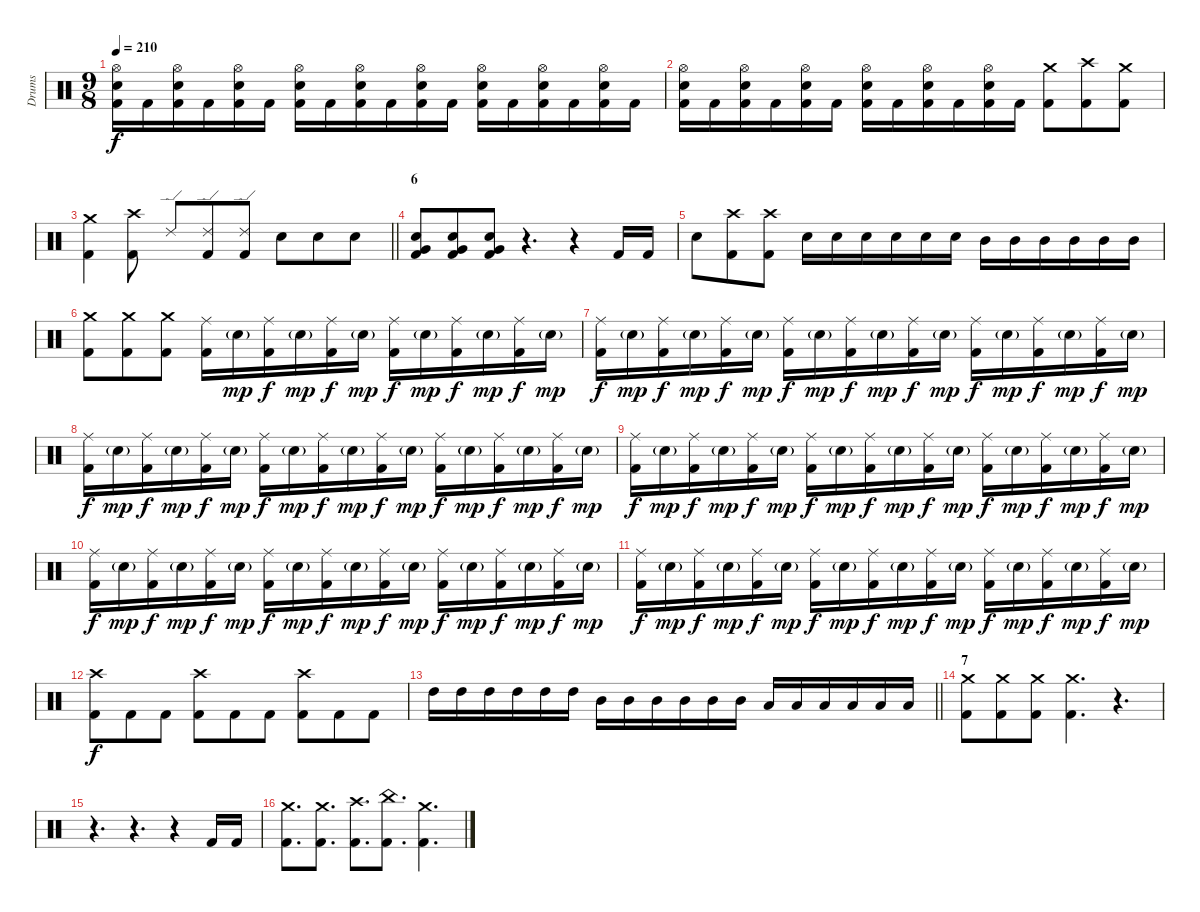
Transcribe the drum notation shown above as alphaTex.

\track ("Drums" "Drums") {instrument percussion}
\staff {score}
\articulation defaults
\ts (9 8)
\tempo 210
\clef neutral
\ks c
("Hi-Hat (open)" "Electric Snare (hit)" "Kick (hit) 2").16{dy f} "Kick (hit) 2".16 ("Hi-Hat (open)" "Electric Snare (hit)" "Kick (hit) 2").16 "Kick (hit) 2".16 ("Hi-Hat (open)" "Electric Snare (hit)" "Kick (hit) 2").16 "Kick (hit) 2".16 ("Hi-Hat (open)" "Electric Snare (hit)" "Kick (hit) 2").16 "Kick (hit) 2".16 ("Hi-Hat (open)" "Electric Snare (hit)" "Kick (hit) 2").16 "Kick (hit) 2".16 ("Hi-Hat (open)" "Electric Snare (hit)" "Kick (hit) 2").16 "Kick (hit) 2".16 ("Hi-Hat (open)" "Electric Snare (hit)" "Kick (hit) 2").16 "Kick (hit) 2".16 ("Hi-Hat (open)" "Electric Snare (hit)" "Kick (hit) 2").16 "Kick (hit) 2".16 ("Hi-Hat (open)" "Electric Snare (hit)" "Kick (hit) 2").16 "Kick (hit) 2".16 |
("Hi-Hat (open)" "Electric Snare (hit)" "Kick (hit) 2").16 "Kick (hit) 2".16 ("Hi-Hat (open)" "Electric Snare (hit)" "Kick (hit) 2").16 "Kick (hit) 2".16 ("Hi-Hat (open)" "Electric Snare (hit)" "Kick (hit) 2").16 "Kick (hit) 2".16 ("Hi-Hat (open)" "Electric Snare (hit)" "Kick (hit) 2").16 "Kick (hit) 2".16 ("Hi-Hat (open)" "Electric Snare (hit)" "Kick (hit) 2").16 "Kick (hit) 2".16 ("Hi-Hat (open)" "Electric Snare (hit)" "Kick (hit) 2").16 "Kick (hit) 2".16 ("Crash medium (hit)" "Kick (hit) 2").8 ("Crash high (hit)" "Kick (hit) 2").8 ("Crash medium (hit)" "Kick (hit) 2").8 |
\barLineRight lightlight
("Crash medium (hit)" "Kick (hit) 2").4 ("Crash high (hit)" "Kick (hit) 2").8 "Ride (edge) 2".8 ("Ride (edge) 2" "Kick (hit) 2").8 ("Ride (edge) 2" "Kick (hit) 2").8 "Electric Snare (hit)".8 "Electric Snare (hit)".8 "Electric Snare (hit)".8 |
\section ("" "6")
("Very Low Tom (hit)" "Electric Snare (hit)" "Kick (hit) 2").8 ("Very Low Tom (hit)" "Electric Snare (hit)" "Kick (hit) 2").8 ("Very Low Tom (hit)" "Electric Snare (hit)" "Kick (hit) 2").8 r.4{d} r.4 "Kick (hit) 2".16 "Kick (hit) 2".16 |
"Electric Snare (hit)".8 ("Crash high (hit)" "Kick (hit) 2").8 ("Crash high (hit)" "Kick (hit) 2").8 "Electric Snare (hit)".16 "Electric Snare (hit)".16 "Electric Snare (hit)".16 "Electric Snare (hit)".16 "Electric Snare (hit)".16 "Electric Snare (hit)".16 "Mid Tom (hit)".16 "Mid Tom (hit)".16 "Mid Tom (hit)".16 "Mid Tom (hit)".16 "Mid Tom (hit)".16 "Mid Tom (hit)".16 |
("Crash medium (hit)" "Kick (hit) 2").8 ("Crash medium (hit)" "Kick (hit) 2").8 ("Crash medium (hit)" "Kick (hit) 2").8 ("Ride (middle)" "Kick (hit) 2").16 "Electric Snare (hit)"{g}.16{dy mp} ("Ride (middle)" "Kick (hit) 2").16{dy f} "Electric Snare (hit)"{g}.16{dy mp} ("Ride (middle)" "Kick (hit) 2").16{dy f} "Electric Snare (hit)"{g}.16{dy mp} ("Ride (middle)" "Kick (hit) 2").16{dy f} "Electric Snare (hit)"{g}.16{dy mp} ("Ride (middle)" "Kick (hit) 2").16{dy f} "Electric Snare (hit)"{g}.16{dy mp} ("Ride (middle)" "Kick (hit) 2").16{dy f} "Electric Snare (hit)"{g}.16{dy mp} |
("Ride (middle)" "Kick (hit) 2").16{dy f} "Electric Snare (hit)"{g}.16{dy mp} ("Ride (middle)" "Kick (hit) 2").16{dy f} "Electric Snare (hit)"{g}.16{dy mp} ("Ride (middle)" "Kick (hit) 2").16{dy f} "Electric Snare (hit)"{g}.16{dy mp} ("Ride (middle)" "Kick (hit) 2").16{dy f} "Electric Snare (hit)"{g}.16{dy mp} ("Ride (middle)" "Kick (hit) 2").16{dy f} "Electric Snare (hit)"{g}.16{dy mp} ("Ride (middle)" "Kick (hit) 2").16{dy f} "Electric Snare (hit)"{g}.16{dy mp} ("Ride (middle)" "Kick (hit) 2").16{dy f} "Electric Snare (hit)"{g}.16{dy mp} ("Ride (middle)" "Kick (hit) 2").16{dy f} "Electric Snare (hit)"{g}.16{dy mp} ("Ride (middle)" "Kick (hit) 2").16{dy f} "Electric Snare (hit)"{g}.16{dy mp} |
("Ride (middle)" "Kick (hit) 2").16{dy f} "Electric Snare (hit)"{g}.16{dy mp} ("Ride (middle)" "Kick (hit) 2").16{dy f} "Electric Snare (hit)"{g}.16{dy mp} ("Ride (middle)" "Kick (hit) 2").16{dy f} "Electric Snare (hit)"{g}.16{dy mp} ("Ride (middle)" "Kick (hit) 2").16{dy f} "Electric Snare (hit)"{g}.16{dy mp} ("Ride (middle)" "Kick (hit) 2").16{dy f} "Electric Snare (hit)"{g}.16{dy mp} ("Ride (middle)" "Kick (hit) 2").16{dy f} "Electric Snare (hit)"{g}.16{dy mp} ("Ride (middle)" "Kick (hit) 2").16{dy f} "Electric Snare (hit)"{g}.16{dy mp} ("Ride (middle)" "Kick (hit) 2").16{dy f} "Electric Snare (hit)"{g}.16{dy mp} ("Ride (middle)" "Kick (hit) 2").16{dy f} "Electric Snare (hit)"{g}.16{dy mp} |
("Ride (middle)" "Kick (hit) 2").16{dy f} "Electric Snare (hit)"{g}.16{dy mp} ("Ride (middle)" "Kick (hit) 2").16{dy f} "Electric Snare (hit)"{g}.16{dy mp} ("Ride (middle)" "Kick (hit) 2").16{dy f} "Electric Snare (hit)"{g}.16{dy mp} ("Ride (middle)" "Kick (hit) 2").16{dy f} "Electric Snare (hit)"{g}.16{dy mp} ("Ride (middle)" "Kick (hit) 2").16{dy f} "Electric Snare (hit)"{g}.16{dy mp} ("Ride (middle)" "Kick (hit) 2").16{dy f} "Electric Snare (hit)"{g}.16{dy mp} ("Ride (middle)" "Kick (hit) 2").16{dy f} "Electric Snare (hit)"{g}.16{dy mp} ("Ride (middle)" "Kick (hit) 2").16{dy f} "Electric Snare (hit)"{g}.16{dy mp} ("Ride (middle)" "Kick (hit) 2").16{dy f} "Electric Snare (hit)"{g}.16{dy mp} |
("Ride (middle)" "Kick (hit) 2").16{dy f} "Electric Snare (hit)"{g}.16{dy mp} ("Ride (middle)" "Kick (hit) 2").16{dy f} "Electric Snare (hit)"{g}.16{dy mp} ("Ride (middle)" "Kick (hit) 2").16{dy f} "Electric Snare (hit)"{g}.16{dy mp} ("Ride (middle)" "Kick (hit) 2").16{dy f} "Electric Snare (hit)"{g}.16{dy mp} ("Ride (middle)" "Kick (hit) 2").16{dy f} "Electric Snare (hit)"{g}.16{dy mp} ("Ride (middle)" "Kick (hit) 2").16{dy f} "Electric Snare (hit)"{g}.16{dy mp} ("Ride (middle)" "Kick (hit) 2").16{dy f} "Electric Snare (hit)"{g}.16{dy mp} ("Ride (middle)" "Kick (hit) 2").16{dy f} "Electric Snare (hit)"{g}.16{dy mp} ("Ride (middle)" "Kick (hit) 2").16{dy f} "Electric Snare (hit)"{g}.16{dy mp} |
("Ride (middle)" "Kick (hit) 2").16{dy f} "Electric Snare (hit)"{g}.16{dy mp} ("Ride (middle)" "Kick (hit) 2").16{dy f} "Electric Snare (hit)"{g}.16{dy mp} ("Ride (middle)" "Kick (hit) 2").16{dy f} "Electric Snare (hit)"{g}.16{dy mp} ("Ride (middle)" "Kick (hit) 2").16{dy f} "Electric Snare (hit)"{g}.16{dy mp} ("Ride (middle)" "Kick (hit) 2").16{dy f} "Electric Snare (hit)"{g}.16{dy mp} ("Ride (middle)" "Kick (hit) 2").16{dy f} "Electric Snare (hit)"{g}.16{dy mp} ("Ride (middle)" "Kick (hit) 2").16{dy f} "Electric Snare (hit)"{g}.16{dy mp} ("Ride (middle)" "Kick (hit) 2").16{dy f} "Electric Snare (hit)"{g}.16{dy mp} ("Ride (middle)" "Kick (hit) 2").16{dy f} "Electric Snare (hit)"{g}.16{dy mp} |
("Crash high (hit)" "Kick (hit) 2").8{dy f} "Kick (hit) 2".8 "Kick (hit) 2".8 ("Crash high (hit)" "Kick (hit) 2").8 "Kick (hit) 2".8 "Kick (hit) 2".8 ("Crash high (hit)" "Kick (hit) 2").8 "Kick (hit) 2".8 "Kick (hit) 2".8 |
\barLineRight lightlight "High Tom (hit)".16 "High Tom (hit)".16 "High Tom (hit)".16 "High Tom (hit)".16 "High Tom (hit)".16 "High Tom (hit)".16 "Mid Tom (hit)".16 "Mid Tom (hit)".16 "Mid Tom (hit)".16 "Mid Tom (hit)".16 "Mid Tom (hit)".16 "Mid Tom (hit)".16 "Low Tom (hit)".16 "Low Tom (hit)".16 "Low Tom (hit)".16 "Low Tom (hit)".16 "Low Tom (hit)".16 "Low Tom (hit)".16
|
\section ("" "7")
("Crash medium (hit)" "Kick (hit) 2").8 ("Crash medium (hit)" "Kick (hit) 2").8 ("Crash medium (hit)" "Kick (hit) 2").8 ("Crash medium (hit)" "Kick (hit) 2").4{d} r.4{d} |
r.4{d} r.4{d} r.4 "Kick (hit) 2".16 "Kick (hit) 2".16 |
("Crash medium (hit)" "Kick (hit) 2").8{d} ("Crash medium (hit)" "Kick (hit) 2").8{d} ("Crash high (hit)" "Kick (hit) 2").8{d} ("China (hit)" "Kick (hit) 2").8{d} ("Crash medium (hit)" "Kick (hit) 2").4{d}
